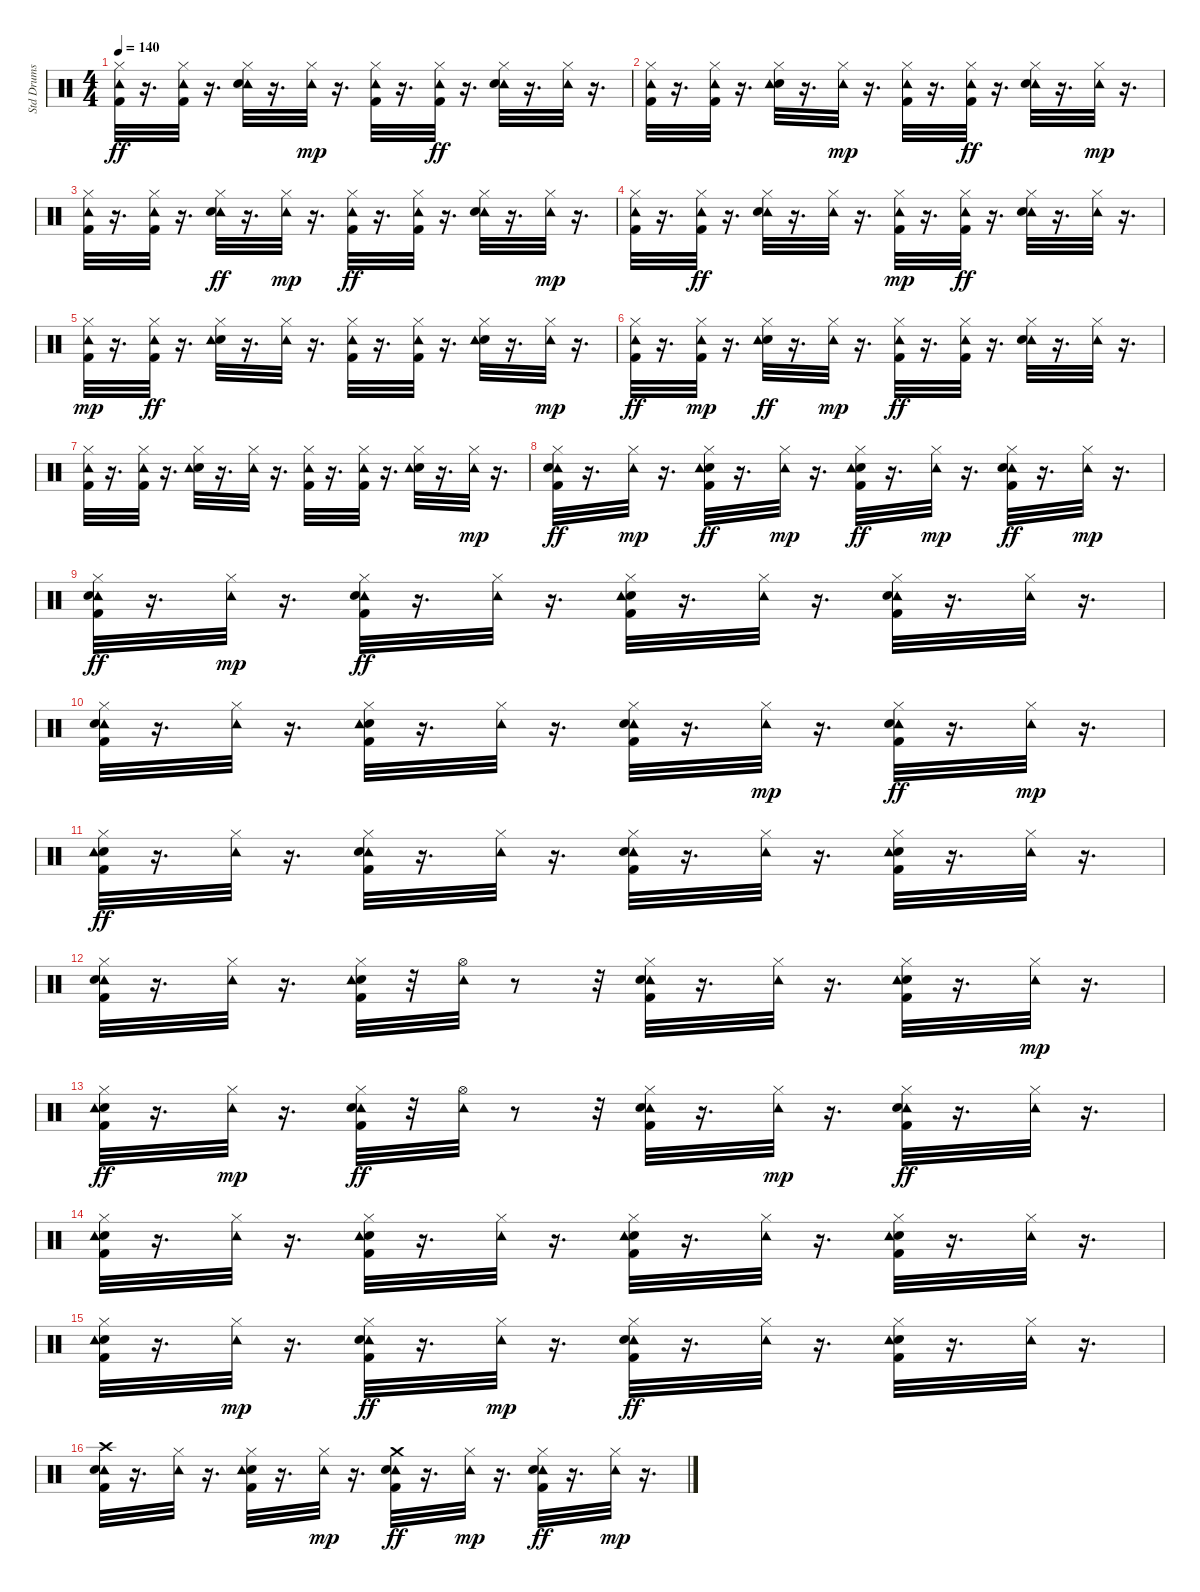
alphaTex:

\track ("Std Drums" "Std Drums") {instrument percussion}
\staff {score}
\articulation defaults
\ts (4 4)
\tempo 140
\clef neutral
\ks c
("Hi-Hat (closed)" "Tambourine (hit)" "Kick (hit) 2").32{dy ff} r.16{d} ("Tambourine (hit)" "Hi-Hat (closed)" "Kick (hit) 2").32 r.16{d} ("Hi-Hat (closed)" "Tambourine (hit)" "Snare (hit) 2").32 r.16{d} ("Hi-Hat (closed)" "Tambourine (hit)").32{dy mp} r.16{d} ("Kick (hit) 2" "Hi-Hat (closed)" "Tambourine (hit)").32 r.16{d} ("Tambourine (hit)" "Hi-Hat (closed)" "Kick (hit) 2").32{dy ff} r.16{d} ("Tambourine (hit)" "Snare (hit) 2" "Hi-Hat (closed)").32 r.16{d} ("Tambourine (hit)" "Hi-Hat (closed)").32 r.16{d} |
("Tambourine (hit)" "Kick (hit) 2" "Hi-Hat (closed)").32 r.16{d} ("Hi-Hat (closed)" "Tambourine (hit)" "Kick (hit) 2").32 r.16{d} ("Snare (hit) 2" "Hi-Hat (closed)" "Tambourine (hit)").32 r.16{d} ("Hi-Hat (closed)" "Tambourine (hit)").32{dy mp} r.16{d} ("Kick (hit) 2" "Hi-Hat (closed)" "Tambourine (hit)").32 r.16{d} ("Kick (hit) 2" "Tambourine (hit)" "Hi-Hat (closed)").32{dy ff} r.16{d} ("Tambourine (hit)" "Snare (hit) 2" "Hi-Hat (closed)").32 r.16{d} ("Hi-Hat (closed)" "Tambourine (hit)").32{dy mp} r.16{d} |
("Kick (hit) 2" "Hi-Hat (closed)" "Tambourine (hit)").32 r.16{d} ("Hi-Hat (closed)" "Kick (hit) 2" "Tambourine (hit)").32 r.16{d} ("Tambourine (hit)" "Snare (hit) 2" "Hi-Hat (closed)").32{dy ff} r.16{d} ("Hi-Hat (closed)" "Tambourine (hit)").32{dy mp} r.16{d} ("Kick (hit) 2" "Tambourine (hit)" "Hi-Hat (closed)").32{dy ff} r.16{d} ("Kick (hit) 2" "Tambourine (hit)" "Hi-Hat (closed)").32 r.16{d} ("Tambourine (hit)" "Hi-Hat (closed)" "Snare (hit) 2").32 r.16{d} ("Hi-Hat (closed)" "Tambourine (hit)").32{dy mp} r.16{d} |
("Hi-Hat (closed)" "Kick (hit) 2" "Tambourine (hit)").32 r.16{d} ("Tambourine (hit)" "Kick (hit) 2" "Hi-Hat (closed)").32{dy ff} r.16{d} ("Tambourine (hit)" "Snare (hit) 2" "Hi-Hat (closed)").32 r.16{d} ("Tambourine (hit)" "Hi-Hat (closed)").32 r.16{d} ("Hi-Hat (closed)" "Kick (hit) 2" "Tambourine (hit)").32{dy mp} r.16{d} ("Kick (hit) 2" "Tambourine (hit)" "Hi-Hat (closed)").32{dy ff} r.16{d} ("Hi-Hat (closed)" "Tambourine (hit)" "Snare (hit) 2").32 r.16{d} ("Tambourine (hit)" "Hi-Hat (closed)").32 r.16{d} |
("Kick (hit) 2" "Hi-Hat (closed)" "Tambourine (hit)").32{dy mp} r.16{d} ("Kick (hit) 2" "Tambourine (hit)" "Hi-Hat (closed)").32{dy ff} r.16{d} ("Snare (hit) 2" "Tambourine (hit)" "Hi-Hat (closed)").32 r.16{d} ("Tambourine (hit)" "Hi-Hat (closed)").32 r.16{d} ("Tambourine (hit)" "Hi-Hat (closed)" "Kick (hit) 2").32 r.16{d} ("Tambourine (hit)" "Kick (hit) 2" "Hi-Hat (closed)").32 r.16{d} ("Snare (hit) 2" "Tambourine (hit)" "Hi-Hat (closed)").32 r.16{d} ("Hi-Hat (closed)" "Tambourine (hit)").32{dy mp} r.16{d} |
("Tambourine (hit)" "Kick (hit) 2" "Hi-Hat (closed)").32{dy ff} r.16{d} ("Hi-Hat (closed)" "Kick (hit) 2" "Tambourine (hit)").32{dy mp} r.16{d} ("Snare (hit) 2" "Hi-Hat (closed)" "Tambourine (hit)").32{dy ff} r.16{d} ("Hi-Hat (closed)" "Tambourine (hit)").32{dy mp} r.16{d} ("Kick (hit) 2" "Tambourine (hit)" "Hi-Hat (closed)").32{dy ff} r.16{d} ("Tambourine (hit)" "Kick (hit) 2" "Hi-Hat (closed)").32 r.16{d} ("Hi-Hat (closed)" "Tambourine (hit)" "Snare (hit) 2").32 r.16{d} ("Tambourine (hit)" "Hi-Hat (closed)").32 r.16{d} |
("Tambourine (hit)" "Kick (hit) 2" "Hi-Hat (closed)").32 r.16{d} ("Tambourine (hit)" "Hi-Hat (closed)" "Kick (hit) 2").32 r.16{d} ("Snare (hit) 2" "Hi-Hat (closed)" "Tambourine (hit)").32 r.16{d} ("Tambourine (hit)" "Hi-Hat (closed)").32 r.16{d} ("Kick (hit) 2" "Tambourine (hit)" "Hi-Hat (closed)").32 r.16{d} ("Tambourine (hit)" "Hi-Hat (closed)" "Kick (hit) 2").32 r.16{d} ("Snare (hit) 2" "Tambourine (hit)" "Hi-Hat (closed)").32 r.16{d} ("Hi-Hat (closed)" "Tambourine (hit)").32{dy mp} r.16{d} |
("Tambourine (hit)" "Snare (hit) 2" "Kick (hit) 2" "Hi-Hat (closed)").32{dy ff} r.16{d} ("Hi-Hat (closed)" "Tambourine (hit)").32{dy mp} r.16{d} ("Snare (hit) 2" "Kick (hit) 2" "Tambourine (hit)" "Hi-Hat (closed)").32{dy ff} r.16{d} ("Hi-Hat (closed)" "Tambourine (hit)").32{dy mp} r.16{d} ("Hi-Hat (closed)" "Snare (hit) 2" "Tambourine (hit)" "Kick (hit) 2").32{dy ff} r.16{d} ("Hi-Hat (closed)" "Tambourine (hit)").32{dy mp} r.16{d} ("Tambourine (hit)" "Kick (hit) 2" "Snare (hit) 2" "Hi-Hat (closed)").32{dy ff} r.16{d} ("Hi-Hat (closed)" "Tambourine (hit)").32{dy mp} r.16{d} |
("Tambourine (hit)" "Kick (hit) 2" "Hi-Hat (closed)" "Snare (hit) 2").32{dy ff} r.16{d} ("Hi-Hat (closed)" "Tambourine (hit)").32{dy mp} r.16{d} ("Tambourine (hit)" "Hi-Hat (closed)" "Kick (hit) 2" "Snare (hit) 2").32{dy ff} r.16{d} ("Tambourine (hit)" "Hi-Hat (closed)").32 r.16{d} ("Hi-Hat (closed)" "Snare (hit) 2" "Kick (hit) 2" "Tambourine (hit)").32 r.16{d} ("Tambourine (hit)" "Hi-Hat (closed)").32 r.16{d} ("Kick (hit) 2" "Tambourine (hit)" "Hi-Hat (closed)" "Snare (hit) 2").32 r.16{d} ("Tambourine (hit)" "Hi-Hat (closed)").32 r.16{d} |
("Kick (hit) 2" "Tambourine (hit)" "Snare (hit) 2" "Hi-Hat (closed)").32 r.16{d} ("Tambourine (hit)" "Hi-Hat (closed)").32 r.16{d} ("Snare (hit) 2" "Tambourine (hit)" "Hi-Hat (closed)" "Kick (hit) 2").32 r.16{d} ("Tambourine (hit)" "Hi-Hat (closed)").32 r.16{d} ("Kick (hit) 2" "Tambourine (hit)" "Snare (hit) 2" "Hi-Hat (closed)").32 r.16{d} ("Hi-Hat (closed)" "Tambourine (hit)").32{dy mp} r.16{d} ("Hi-Hat (closed)" "Kick (hit) 2" "Tambourine (hit)" "Snare (hit) 2").32{dy ff} r.16{d} ("Hi-Hat (closed)" "Tambourine (hit)").32{dy mp} r.16{d} |
("Hi-Hat (closed)" "Snare (hit) 2" "Tambourine (hit)" "Kick (hit) 2").32{dy ff} r.16{d} ("Tambourine (hit)" "Hi-Hat (closed)").32 r.16{d} ("Kick (hit) 2" "Hi-Hat (closed)" "Tambourine (hit)" "Snare (hit) 2").32 r.16{d} ("Tambourine (hit)" "Hi-Hat (closed)").32 r.16{d} ("Tambourine (hit)" "Snare (hit) 2" "Hi-Hat (closed)" "Kick (hit) 2").32 r.16{d} ("Tambourine (hit)" "Hi-Hat (closed)").32 r.16{d} ("Kick (hit) 2" "Hi-Hat (closed)" "Snare (hit) 2" "Tambourine (hit)").32 r.16{d} ("Tambourine (hit)" "Hi-Hat (closed)").32 r.16{d} |
("Hi-Hat (closed)" "Tambourine (hit)" "Snare (hit) 2" "Kick (hit) 2").32 r.16{d} ("Tambourine (hit)" "Hi-Hat (closed)").32 r.16{d} ("Snare (hit) 2" "Tambourine (hit)" "Hi-Hat (closed)" "Kick (hit) 2").32 r.32 ("Tambourine (hit)" "Hi-Hat (open)").32 r.8 r.32 ("Kick (hit) 2" "Tambourine (hit)" "Hi-Hat (closed)" "Snare (hit) 2").32 r.16{d} ("Tambourine (hit)" "Hi-Hat (closed)").32 r.16{d} ("Hi-Hat (closed)" "Kick (hit) 2" "Snare (hit) 2" "Tambourine (hit)").32 r.16{d} ("Hi-Hat (closed)" "Tambourine (hit)").32{dy mp} r.16{d} |
("Snare (hit) 2" "Kick (hit) 2" "Tambourine (hit)" "Hi-Hat (closed)").32{dy ff} r.16{d} ("Hi-Hat (closed)" "Tambourine (hit)").32{dy mp} r.16{d} ("Tambourine (hit)" "Snare (hit) 2" "Hi-Hat (closed)" "Kick (hit) 2").32{dy ff} r.32 ("Hi-Hat (open)" "Tambourine (hit)").32 r.8 r.32 ("Tambourine (hit)" "Snare (hit) 2" "Hi-Hat (closed)" "Kick (hit) 2").32 r.16{d} ("Hi-Hat (closed)" "Tambourine (hit)").32{dy mp} r.16{d} ("Tambourine (hit)" "Hi-Hat (closed)" "Kick (hit) 2" "Snare (hit) 2").32{dy ff} r.16{d} ("Tambourine (hit)" "Hi-Hat (closed)").32 r.16{d} |
("Kick (hit) 2" "Hi-Hat (closed)" "Snare (hit) 2" "Tambourine (hit)").32 r.16{d} ("Tambourine (hit)" "Hi-Hat (closed)").32 r.16{d} ("Snare (hit) 2" "Tambourine (hit)" "Hi-Hat (closed)" "Kick (hit) 2").32 r.16{d} ("Tambourine (hit)" "Hi-Hat (closed)").32 r.16{d} ("Snare (hit) 2" "Tambourine (hit)" "Hi-Hat (closed)" "Kick (hit) 2").32 r.16{d} ("Tambourine (hit)" "Hi-Hat (closed)").32 r.16{d} ("Snare (hit) 2" "Tambourine (hit)" "Kick (hit) 2" "Hi-Hat (closed)").32 r.16{d} ("Tambourine (hit)" "Hi-Hat (closed)").32 r.16{d} |
("Snare (hit) 2" "Tambourine (hit)" "Kick (hit) 2" "Hi-Hat (closed)").32 r.16{d} ("Hi-Hat (closed)" "Tambourine (hit)").32{dy mp} r.16{d} ("Hi-Hat (closed)" "Kick (hit) 2" "Tambourine (hit)" "Snare (hit) 2").32{dy ff} r.16{d} ("Hi-Hat (closed)" "Tambourine (hit)").32{dy mp} r.16{d} ("Hi-Hat (closed)" "Kick (hit) 2" "Tambourine (hit)" "Snare (hit) 2").32{dy ff} r.16{d} ("Tambourine (hit)" "Hi-Hat (closed)").32 r.16{d} ("Kick (hit) 2" "Snare (hit) 2" "Tambourine (hit)" "Hi-Hat (closed)").32 r.16{d} ("Tambourine (hit)" "Hi-Hat (closed)").32 r.16{d} |
("Tambourine (hit)" "Snare (hit) 2" "Crash high (hit)" "Kick (hit) 2").32 r.16{d} ("Tambourine (hit)" "Hi-Hat (closed)").32 r.16{d} ("Hi-Hat (closed)" "Snare (hit) 2" "Kick (hit) 2" "Tambourine (hit)").32 r.16{d} ("Hi-Hat (closed)" "Tambourine (hit)").32{dy mp} r.16{d} ("Tambourine (hit)" "Kick (hit) 2" "Snare (hit) 2" "Crash medium (hit)").32{dy ff} r.16{d} ("Hi-Hat (closed)" "Tambourine (hit)").32{dy mp} r.16{d} ("Tambourine (hit)" "Snare (hit) 2" "Hi-Hat (closed)" "Kick (hit) 2").32{dy ff} r.16{d} ("Hi-Hat (closed)" "Tambourine (hit)").32{dy mp} r.16{d}
